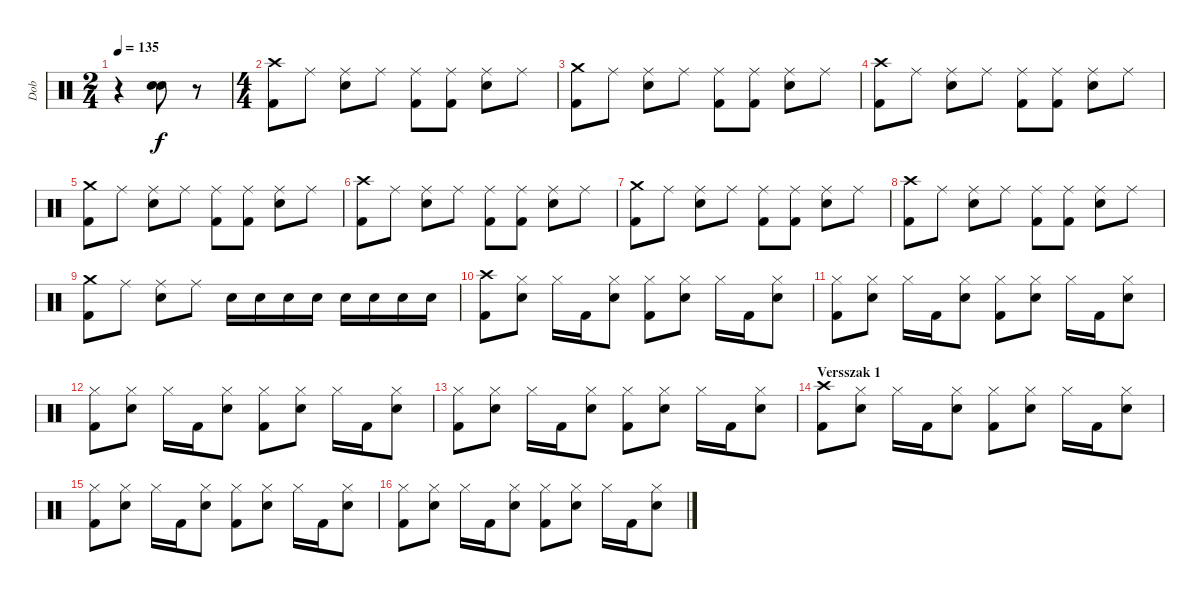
\track ("Dob" "Dob") {instrument percussion}
\staff {score}
\articulation defaults
\ts (2 4)
\tempo 135
\clef neutral
\ks c
r.4{dy f} ("Snare (hit) 2" "Snare (hit) 2").8{bd 240} r.8 |
\ts (4 4)
("Crash high (hit)" "Kick (hit) 2").8 "Ride (middle)".8 ("Ride (middle)" "Snare (hit) 2").8 "Ride (middle)".8 ("Ride (middle)" "Kick (hit) 2").8 ("Ride (middle)" "Kick (hit) 2").8 ("Ride (middle)" "Snare (hit) 2").8 "Ride (middle)".8 |
("Crash medium (hit)" "Kick (hit) 2").8 "Ride (middle)".8 ("Ride (middle)" "Snare (hit) 2").8 "Ride (middle)".8 ("Ride (middle)" "Kick (hit) 2").8 ("Ride (middle)" "Kick (hit) 2").8 ("Ride (middle)" "Snare (hit) 2").8 "Ride (middle)".8 |
("Crash high (hit)" "Kick (hit) 2").8 "Ride (middle)".8 ("Ride (middle)" "Snare (hit) 2").8 "Ride (middle)".8 ("Ride (middle)" "Kick (hit) 2").8 ("Ride (middle)" "Kick (hit) 2").8 ("Ride (middle)" "Snare (hit) 2").8 "Ride (middle)".8 |
("Crash medium (hit)" "Kick (hit) 2").8 "Ride (middle)".8 ("Ride (middle)" "Snare (hit) 2").8 "Ride (middle)".8 ("Ride (middle)" "Kick (hit) 2").8 ("Ride (middle)" "Kick (hit) 2").8 ("Ride (middle)" "Snare (hit) 2").8 "Ride (middle)".8 |
("Crash high (hit)" "Kick (hit) 2").8 "Ride (middle)".8 ("Ride (middle)" "Snare (hit) 2").8 "Ride (middle)".8 ("Ride (middle)" "Kick (hit) 2").8 ("Ride (middle)" "Kick (hit) 2").8 ("Ride (middle)" "Snare (hit) 2").8 "Ride (middle)".8 |
("Crash medium (hit)" "Kick (hit) 2").8 "Ride (middle)".8 ("Ride (middle)" "Snare (hit) 2").8 "Ride (middle)".8 ("Ride (middle)" "Kick (hit) 2").8 ("Ride (middle)" "Kick (hit) 2").8 ("Ride (middle)" "Snare (hit) 2").8 "Ride (middle)".8 |
("Crash high (hit)" "Kick (hit) 2").8 "Ride (middle)".8 ("Ride (middle)" "Snare (hit) 2").8 "Ride (middle)".8 ("Ride (middle)" "Kick (hit) 2").8 ("Ride (middle)" "Kick (hit) 2").8 ("Ride (middle)" "Snare (hit) 2").8 "Ride (middle)".8 |
("Crash medium (hit)" "Kick (hit) 2").8 "Ride (middle)".8 ("Ride (middle)" "Snare (hit) 2").8 "Ride (middle)".8 "Snare (hit) 2".16 "Snare (hit) 2".16 "Snare (hit) 2".16 "Snare (hit) 2".16 "Snare (hit) 2".16 "Snare (hit) 2".16 "Snare (hit) 2".16 "Snare (hit) 2".16 |
("Crash high (hit)" "Kick (hit) 2").8 ("Hi-Hat (closed)" "Snare (hit) 2").8 "Hi-Hat (closed)".16 "Kick (hit) 2".16 ("Hi-Hat (closed)" "Snare (hit) 2").8 ("Hi-Hat (closed)" "Kick (hit) 2").8 ("Hi-Hat (closed)" "Snare (hit) 2").8 "Hi-Hat (closed)".16 "Kick (hit) 2".16 ("Hi-Hat (closed)" "Snare (hit) 2").8 |
("Hi-Hat (closed)" "Kick (hit) 2").8 ("Hi-Hat (closed)" "Snare (hit) 2").8 "Hi-Hat (closed)".16 "Kick (hit) 2".16 ("Hi-Hat (closed)" "Snare (hit) 2").8 ("Hi-Hat (closed)" "Kick (hit) 2").8 ("Hi-Hat (closed)" "Snare (hit) 2").8 "Hi-Hat (closed)".16 "Kick (hit) 2".16 ("Hi-Hat (closed)" "Snare (hit) 2").8 |
("Hi-Hat (closed)" "Kick (hit) 2").8 ("Hi-Hat (closed)" "Snare (hit) 2").8 "Hi-Hat (closed)".16 "Kick (hit) 2".16 ("Hi-Hat (closed)" "Snare (hit) 2").8 ("Hi-Hat (closed)" "Kick (hit) 2").8 ("Hi-Hat (closed)" "Snare (hit) 2").8 "Hi-Hat (closed)".16 "Kick (hit) 2".16 ("Hi-Hat (closed)" "Snare (hit) 2").8 |
("Hi-Hat (closed)" "Kick (hit) 2").8 ("Hi-Hat (closed)" "Snare (hit) 2").8 "Hi-Hat (closed)".16 "Kick (hit) 2".16 ("Hi-Hat (closed)" "Snare (hit) 2").8 ("Hi-Hat (closed)" "Kick (hit) 2").8 ("Hi-Hat (closed)" "Snare (hit) 2").8 "Hi-Hat (closed)".16 "Kick (hit) 2".16 ("Hi-Hat (closed)" "Snare (hit) 2").8 |
\section ("" "Versszak 1")
("Crash high (hit)" "Kick (hit) 2").8 ("Hi-Hat (closed)" "Snare (hit) 2").8 "Hi-Hat (closed)".16 "Kick (hit) 2".16 ("Hi-Hat (closed)" "Snare (hit) 2").8 ("Hi-Hat (closed)" "Kick (hit) 2").8 ("Hi-Hat (closed)" "Snare (hit) 2").8 "Hi-Hat (closed)".16 "Kick (hit) 2".16 ("Hi-Hat (closed)" "Snare (hit) 2").8 |
("Hi-Hat (closed)" "Kick (hit) 2").8 ("Hi-Hat (closed)" "Snare (hit) 2").8 "Hi-Hat (closed)".16 "Kick (hit) 2".16 ("Hi-Hat (closed)" "Snare (hit) 2").8 ("Hi-Hat (closed)" "Kick (hit) 2").8 ("Hi-Hat (closed)" "Snare (hit) 2").8 "Hi-Hat (closed)".16 "Kick (hit) 2".16 ("Hi-Hat (closed)" "Snare (hit) 2").8 |
("Hi-Hat (closed)" "Kick (hit) 2").8 ("Hi-Hat (closed)" "Snare (hit) 2").8 "Hi-Hat (closed)".16 "Kick (hit) 2".16 ("Hi-Hat (closed)" "Snare (hit) 2").8 ("Hi-Hat (closed)" "Kick (hit) 2").8 ("Hi-Hat (closed)" "Snare (hit) 2").8 "Hi-Hat (closed)".16 "Kick (hit) 2".16 ("Hi-Hat (closed)" "Snare (hit) 2").8
